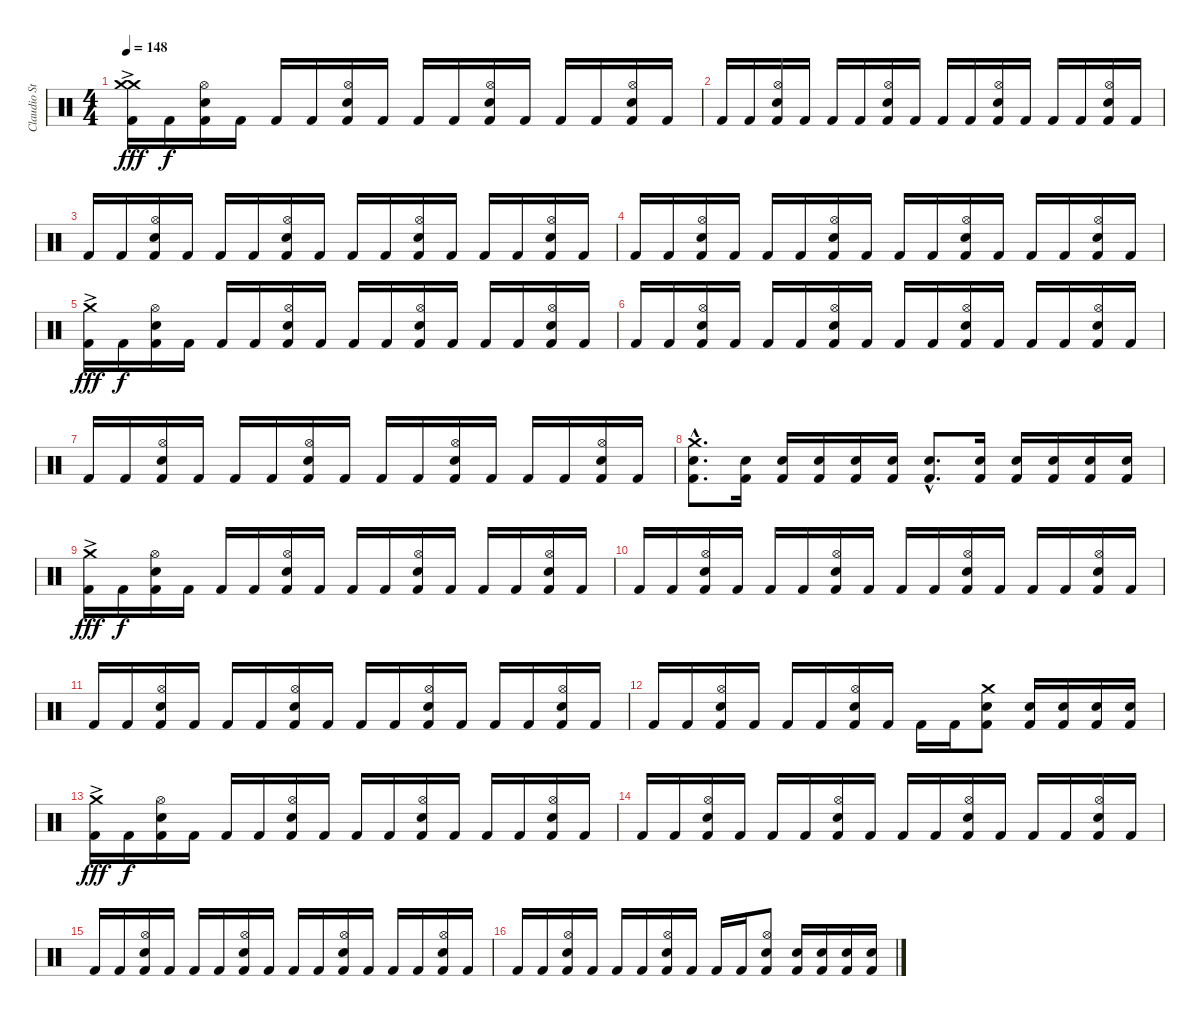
\track ("Claudio Strunz" "Claudio St") {instrument percussion}
\staff {score}
\articulation defaults
\ts (4 4)
\tempo 148
\clef neutral
\ks c
("Crash medium (hit)"{ac} "Crash medium (hit)"{ac} "Kick (hit) 2").16{dy fff} "Kick (hit) 2".16{dy f} ("Hi-Hat (open)" "Electric Snare (hit)" "Kick (hit) 2").16 "Kick (hit) 2".16 "Kick (hit) 2".16 "Kick (hit) 2".16 ("Hi-Hat (open)" "Electric Snare (hit)" "Kick (hit) 2").16 "Kick (hit) 2".16 "Kick (hit) 2".16 "Kick (hit) 2".16 ("Hi-Hat (open)" "Electric Snare (hit)" "Kick (hit) 2").16 "Kick (hit) 2".16 "Kick (hit) 2".16 "Kick (hit) 2".16 ("Hi-Hat (open)" "Electric Snare (hit)" "Kick (hit) 2").16 "Kick (hit) 2".16 |
"Kick (hit) 2".16 "Kick (hit) 2".16 ("Hi-Hat (open)" "Electric Snare (hit)" "Kick (hit) 2").16 "Kick (hit) 2".16 "Kick (hit) 2".16 "Kick (hit) 2".16 ("Hi-Hat (open)" "Electric Snare (hit)" "Kick (hit) 2").16 "Kick (hit) 2".16 "Kick (hit) 2".16 "Kick (hit) 2".16 ("Hi-Hat (open)" "Electric Snare (hit)" "Kick (hit) 2").16 "Kick (hit) 2".16 "Kick (hit) 2".16 "Kick (hit) 2".16 ("Hi-Hat (open)" "Electric Snare (hit)" "Kick (hit) 2").16 "Kick (hit) 2".16 |
"Kick (hit) 2".16 "Kick (hit) 2".16 ("Hi-Hat (open)" "Electric Snare (hit)" "Kick (hit) 2").16 "Kick (hit) 2".16 "Kick (hit) 2".16 "Kick (hit) 2".16 ("Hi-Hat (open)" "Electric Snare (hit)" "Kick (hit) 2").16 "Kick (hit) 2".16 "Kick (hit) 2".16 "Kick (hit) 2".16 ("Hi-Hat (open)" "Electric Snare (hit)" "Kick (hit) 2").16 "Kick (hit) 2".16 "Kick (hit) 2".16 "Kick (hit) 2".16 ("Hi-Hat (open)" "Electric Snare (hit)" "Kick (hit) 2").16 "Kick (hit) 2".16 |
"Kick (hit) 2".16 "Kick (hit) 2".16 ("Hi-Hat (open)" "Electric Snare (hit)" "Kick (hit) 2").16 "Kick (hit) 2".16 "Kick (hit) 2".16 "Kick (hit) 2".16 ("Hi-Hat (open)" "Electric Snare (hit)" "Kick (hit) 2").16 "Kick (hit) 2".16 "Kick (hit) 2".16 "Kick (hit) 2".16 ("Hi-Hat (open)" "Electric Snare (hit)" "Kick (hit) 2").16 "Kick (hit) 2".16 "Kick (hit) 2".16 "Kick (hit) 2".16 ("Hi-Hat (open)" "Electric Snare (hit)" "Kick (hit) 2").16 "Kick (hit) 2".16 |
("Crash medium (hit)"{ac} "Kick (hit) 2").16{dy fff} "Kick (hit) 2".16{dy f} ("Hi-Hat (open)" "Electric Snare (hit)" "Kick (hit) 2").16 "Kick (hit) 2".16 "Kick (hit) 2".16 "Kick (hit) 2".16 ("Hi-Hat (open)" "Electric Snare (hit)" "Kick (hit) 2").16 "Kick (hit) 2".16 "Kick (hit) 2".16 "Kick (hit) 2".16 ("Hi-Hat (open)" "Electric Snare (hit)" "Kick (hit) 2").16 "Kick (hit) 2".16 "Kick (hit) 2".16 "Kick (hit) 2".16 ("Hi-Hat (open)" "Electric Snare (hit)" "Kick (hit) 2").16 "Kick (hit) 2".16 |
"Kick (hit) 2".16 "Kick (hit) 2".16 ("Hi-Hat (open)" "Electric Snare (hit)" "Kick (hit) 2").16 "Kick (hit) 2".16 "Kick (hit) 2".16 "Kick (hit) 2".16 ("Hi-Hat (open)" "Electric Snare (hit)" "Kick (hit) 2").16 "Kick (hit) 2".16 "Kick (hit) 2".16 "Kick (hit) 2".16 ("Hi-Hat (open)" "Electric Snare (hit)" "Kick (hit) 2").16 "Kick (hit) 2".16 "Kick (hit) 2".16 "Kick (hit) 2".16 ("Hi-Hat (open)" "Electric Snare (hit)" "Kick (hit) 2").16 "Kick (hit) 2".16 |
"Kick (hit) 2".16 "Kick (hit) 2".16 ("Hi-Hat (open)" "Electric Snare (hit)" "Kick (hit) 2").16 "Kick (hit) 2".16 "Kick (hit) 2".16 "Kick (hit) 2".16 ("Hi-Hat (open)" "Electric Snare (hit)" "Kick (hit) 2").16 "Kick (hit) 2".16 "Kick (hit) 2".16 "Kick (hit) 2".16 ("Hi-Hat (open)" "Electric Snare (hit)" "Kick (hit) 2").16 "Kick (hit) 2".16 "Kick (hit) 2".16 "Kick (hit) 2".16 ("Hi-Hat (open)" "Electric Snare (hit)" "Kick (hit) 2").16 "Kick (hit) 2".16 |
("Crash medium (hit)"{hac} "Electric Snare (hit)"{hac} "Kick (hit) 2"{hac}).8{d} ("Electric Snare (hit)" "Kick (hit) 2").16 ("Electric Snare (hit)" "Kick (hit) 2").16 ("Electric Snare (hit)" "Kick (hit) 2").16 ("Electric Snare (hit)" "Kick (hit) 2").16 ("Electric Snare (hit)" "Kick (hit) 2").16 ("Electric Snare (hit)"{hac} "Kick (hit) 2"{hac}).8{d} ("Electric Snare (hit)" "Kick (hit) 2").16 ("Electric Snare (hit)" "Kick (hit) 2").16 ("Electric Snare (hit)" "Kick (hit) 2").16 ("Electric Snare (hit)" "Kick (hit) 2").16 ("Electric Snare (hit)" "Kick (hit) 2").16 |
("Crash medium (hit)"{ac} "Kick (hit) 2").16{dy fff} "Kick (hit) 2".16{dy f} ("Hi-Hat (open)" "Electric Snare (hit)" "Kick (hit) 2").16 "Kick (hit) 2".16 "Kick (hit) 2".16 "Kick (hit) 2".16 ("Hi-Hat (open)" "Electric Snare (hit)" "Kick (hit) 2").16 "Kick (hit) 2".16 "Kick (hit) 2".16 "Kick (hit) 2".16 ("Hi-Hat (open)" "Electric Snare (hit)" "Kick (hit) 2").16 "Kick (hit) 2".16 "Kick (hit) 2".16 "Kick (hit) 2".16 ("Hi-Hat (open)" "Electric Snare (hit)" "Kick (hit) 2").16 "Kick (hit) 2".16 |
"Kick (hit) 2".16 "Kick (hit) 2".16 ("Hi-Hat (open)" "Electric Snare (hit)" "Kick (hit) 2").16 "Kick (hit) 2".16 "Kick (hit) 2".16 "Kick (hit) 2".16 ("Hi-Hat (open)" "Electric Snare (hit)" "Kick (hit) 2").16 "Kick (hit) 2".16 "Kick (hit) 2".16 "Kick (hit) 2".16 ("Hi-Hat (open)" "Electric Snare (hit)" "Kick (hit) 2").16 "Kick (hit) 2".16 "Kick (hit) 2".16 "Kick (hit) 2".16 ("Hi-Hat (open)" "Electric Snare (hit)" "Kick (hit) 2").16 "Kick (hit) 2".16 |
"Kick (hit) 2".16 "Kick (hit) 2".16 ("Hi-Hat (open)" "Electric Snare (hit)" "Kick (hit) 2").16 "Kick (hit) 2".16 "Kick (hit) 2".16 "Kick (hit) 2".16 ("Hi-Hat (open)" "Electric Snare (hit)" "Kick (hit) 2").16 "Kick (hit) 2".16 "Kick (hit) 2".16 "Kick (hit) 2".16 ("Hi-Hat (open)" "Electric Snare (hit)" "Kick (hit) 2").16 "Kick (hit) 2".16 "Kick (hit) 2".16 "Kick (hit) 2".16 ("Hi-Hat (open)" "Electric Snare (hit)" "Kick (hit) 2").16 "Kick (hit) 2".16 |
"Kick (hit) 2".16 "Kick (hit) 2".16 ("Hi-Hat (open)" "Electric Snare (hit)" "Kick (hit) 2").16 "Kick (hit) 2".16 "Kick (hit) 2".16 "Kick (hit) 2".16 ("Hi-Hat (open)" "Electric Snare (hit)" "Kick (hit) 2").16 "Kick (hit) 2".16 "Kick (hit) 2".16 "Kick (hit) 2".16 ("Crash medium (hit)" "Electric Snare (hit)" "Kick (hit) 2").8 ("Electric Snare (hit)" "Kick (hit) 2").16 ("Electric Snare (hit)" "Kick (hit) 2").16 ("Electric Snare (hit)" "Kick (hit) 2").16 ("Electric Snare (hit)" "Kick (hit) 2").16 |
("Crash medium (hit)"{ac} "Kick (hit) 2").16{dy fff} "Kick (hit) 2".16{dy f} ("Hi-Hat (open)" "Electric Snare (hit)" "Kick (hit) 2").16 "Kick (hit) 2".16 "Kick (hit) 2".16 "Kick (hit) 2".16 ("Hi-Hat (open)" "Electric Snare (hit)" "Kick (hit) 2").16 "Kick (hit) 2".16 "Kick (hit) 2".16 "Kick (hit) 2".16 ("Hi-Hat (open)" "Electric Snare (hit)" "Kick (hit) 2").16 "Kick (hit) 2".16 "Kick (hit) 2".16 "Kick (hit) 2".16 ("Hi-Hat (open)" "Electric Snare (hit)" "Kick (hit) 2").16 "Kick (hit) 2".16 |
"Kick (hit) 2".16 "Kick (hit) 2".16 ("Hi-Hat (open)" "Electric Snare (hit)" "Kick (hit) 2").16 "Kick (hit) 2".16 "Kick (hit) 2".16 "Kick (hit) 2".16 ("Hi-Hat (open)" "Electric Snare (hit)" "Kick (hit) 2").16 "Kick (hit) 2".16 "Kick (hit) 2".16 "Kick (hit) 2".16 ("Hi-Hat (open)" "Electric Snare (hit)" "Kick (hit) 2").16 "Kick (hit) 2".16 "Kick (hit) 2".16 "Kick (hit) 2".16 ("Hi-Hat (open)" "Electric Snare (hit)" "Kick (hit) 2").16 "Kick (hit) 2".16 |
"Kick (hit) 2".16 "Kick (hit) 2".16 ("Hi-Hat (open)" "Electric Snare (hit)" "Kick (hit) 2").16 "Kick (hit) 2".16 "Kick (hit) 2".16 "Kick (hit) 2".16 ("Hi-Hat (open)" "Electric Snare (hit)" "Kick (hit) 2").16 "Kick (hit) 2".16 "Kick (hit) 2".16 "Kick (hit) 2".16 ("Hi-Hat (open)" "Electric Snare (hit)" "Kick (hit) 2").16 "Kick (hit) 2".16 "Kick (hit) 2".16 "Kick (hit) 2".16 ("Hi-Hat (open)" "Electric Snare (hit)" "Kick (hit) 2").16 "Kick (hit) 2".16 |
"Kick (hit) 2".16 "Kick (hit) 2".16 ("Hi-Hat (open)" "Electric Snare (hit)" "Kick (hit) 2").16 "Kick (hit) 2".16 "Kick (hit) 2".16 "Kick (hit) 2".16 ("Hi-Hat (open)" "Electric Snare (hit)" "Kick (hit) 2").16 "Kick (hit) 2".16 "Kick (hit) 2".16 "Kick (hit) 2".16 ("Hi-Hat (open)" "Electric Snare (hit)" "Kick (hit) 2").8 ("Electric Snare (hit)" "Kick (hit) 2").16 ("Electric Snare (hit)" "Kick (hit) 2").16 ("Electric Snare (hit)" "Kick (hit) 2").16 ("Electric Snare (hit)" "Kick (hit) 2").16
